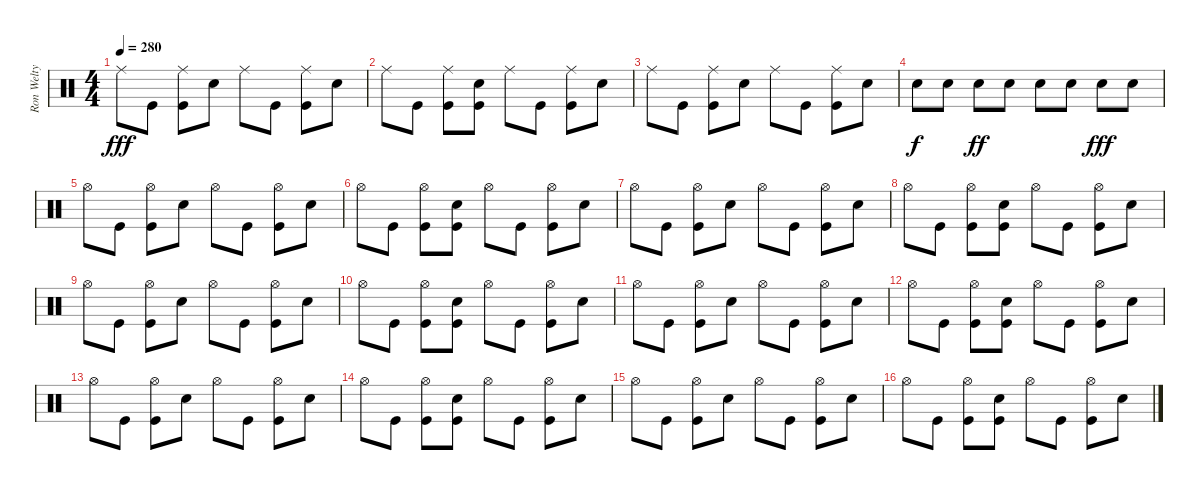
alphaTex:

\track ("Ron Welty" "Ron Welty") {instrument percussion}
\staff {score}
\articulation defaults
\ts (4 4)
\tempo 280
\clef neutral
\ks c "Ride (middle)".8{dy fff} "Kick (hit)".8
("Ride (middle)" "Kick (hit)").8 "Snare (hit) 2".8 "Ride (middle)".8 "Kick (hit)".8 ("Ride (middle)" "Kick (hit)").8 "Snare (hit) 2".8 |
"Ride (middle)".8 "Kick (hit)".8 ("Ride (middle)" "Kick (hit)").8 ("Snare (hit) 2" "Kick (hit)").8 "Ride (middle)".8 "Kick (hit)".8 ("Ride (middle)" "Kick (hit)").8 "Snare (hit) 2".8 |
"Ride (middle)".8 "Kick (hit)".8 ("Ride (middle)" "Kick (hit)").8 "Snare (hit) 2".8 "Ride (middle)".8 "Kick (hit)".8 ("Ride (middle)" "Kick (hit)").8 "Snare (hit) 2".8 |
"Snare (hit) 2".8{dy f} "Snare (hit) 2".8 "Snare (hit) 2".8{dy ff} "Snare (hit) 2".8 "Snare (hit) 2".8 "Snare (hit) 2".8 "Snare (hit) 2".8{dy fff} "Snare (hit) 2".8 |
"Hi-Hat (open)".8 "Kick (hit)".8 ("Hi-Hat (open)" "Kick (hit)").8 "Snare (hit) 2".8 "Hi-Hat (open)".8 "Kick (hit)".8 ("Hi-Hat (open)" "Kick (hit)").8 "Snare (hit) 2".8 |
"Hi-Hat (open)".8 "Kick (hit)".8 ("Hi-Hat (open)" "Kick (hit)").8 ("Snare (hit) 2" "Kick (hit)").8 "Hi-Hat (open)".8 "Kick (hit)".8 ("Hi-Hat (open)" "Kick (hit)").8 "Snare (hit) 2".8 |
"Hi-Hat (open)".8 "Kick (hit)".8 ("Hi-Hat (open)" "Kick (hit)").8 "Snare (hit) 2".8 "Hi-Hat (open)".8 "Kick (hit)".8 ("Hi-Hat (open)" "Kick (hit)").8 "Snare (hit) 2".8 |
"Hi-Hat (open)".8 "Kick (hit)".8 ("Hi-Hat (open)" "Kick (hit)").8 ("Snare (hit) 2" "Kick (hit)").8 "Hi-Hat (open)".8 "Kick (hit)".8 ("Hi-Hat (open)" "Kick (hit)").8 "Snare (hit) 2".8 |
"Hi-Hat (open)".8 "Kick (hit)".8 ("Hi-Hat (open)" "Kick (hit)").8 "Snare (hit) 2".8 "Hi-Hat (open)".8 "Kick (hit)".8 ("Hi-Hat (open)" "Kick (hit)").8 "Snare (hit) 2".8 |
"Hi-Hat (open)".8 "Kick (hit)".8 ("Hi-Hat (open)" "Kick (hit)").8 ("Snare (hit) 2" "Kick (hit)").8 "Hi-Hat (open)".8 "Kick (hit)".8 ("Hi-Hat (open)" "Kick (hit)").8 "Snare (hit) 2".8 |
"Hi-Hat (open)".8 "Kick (hit)".8 ("Hi-Hat (open)" "Kick (hit)").8 "Snare (hit) 2".8 "Hi-Hat (open)".8 "Kick (hit)".8 ("Hi-Hat (open)" "Kick (hit)").8 "Snare (hit) 2".8 |
"Hi-Hat (open)".8 "Kick (hit)".8 ("Hi-Hat (open)" "Kick (hit)").8 ("Snare (hit) 2" "Kick (hit)").8 "Hi-Hat (open)".8 "Kick (hit)".8 ("Hi-Hat (open)" "Kick (hit)").8 "Snare (hit) 2".8 |
"Hi-Hat (open)".8 "Kick (hit)".8 ("Hi-Hat (open)" "Kick (hit)").8 "Snare (hit) 2".8 "Hi-Hat (open)".8 "Kick (hit)".8 ("Hi-Hat (open)" "Kick (hit)").8 "Snare (hit) 2".8 |
"Hi-Hat (open)".8 "Kick (hit)".8 ("Hi-Hat (open)" "Kick (hit)").8 ("Snare (hit) 2" "Kick (hit)").8 "Hi-Hat (open)".8 "Kick (hit)".8 ("Hi-Hat (open)" "Kick (hit)").8 "Snare (hit) 2".8 |
"Hi-Hat (open)".8 "Kick (hit)".8 ("Hi-Hat (open)" "Kick (hit)").8 "Snare (hit) 2".8 "Hi-Hat (open)".8 "Kick (hit)".8 ("Hi-Hat (open)" "Kick (hit)").8 "Snare (hit) 2".8 |
"Hi-Hat (open)".8 "Kick (hit)".8 ("Hi-Hat (open)" "Kick (hit)").8 ("Snare (hit) 2" "Kick (hit)").8 "Hi-Hat (open)".8 "Kick (hit)".8 ("Hi-Hat (open)" "Kick (hit)").8 "Snare (hit) 2".8
